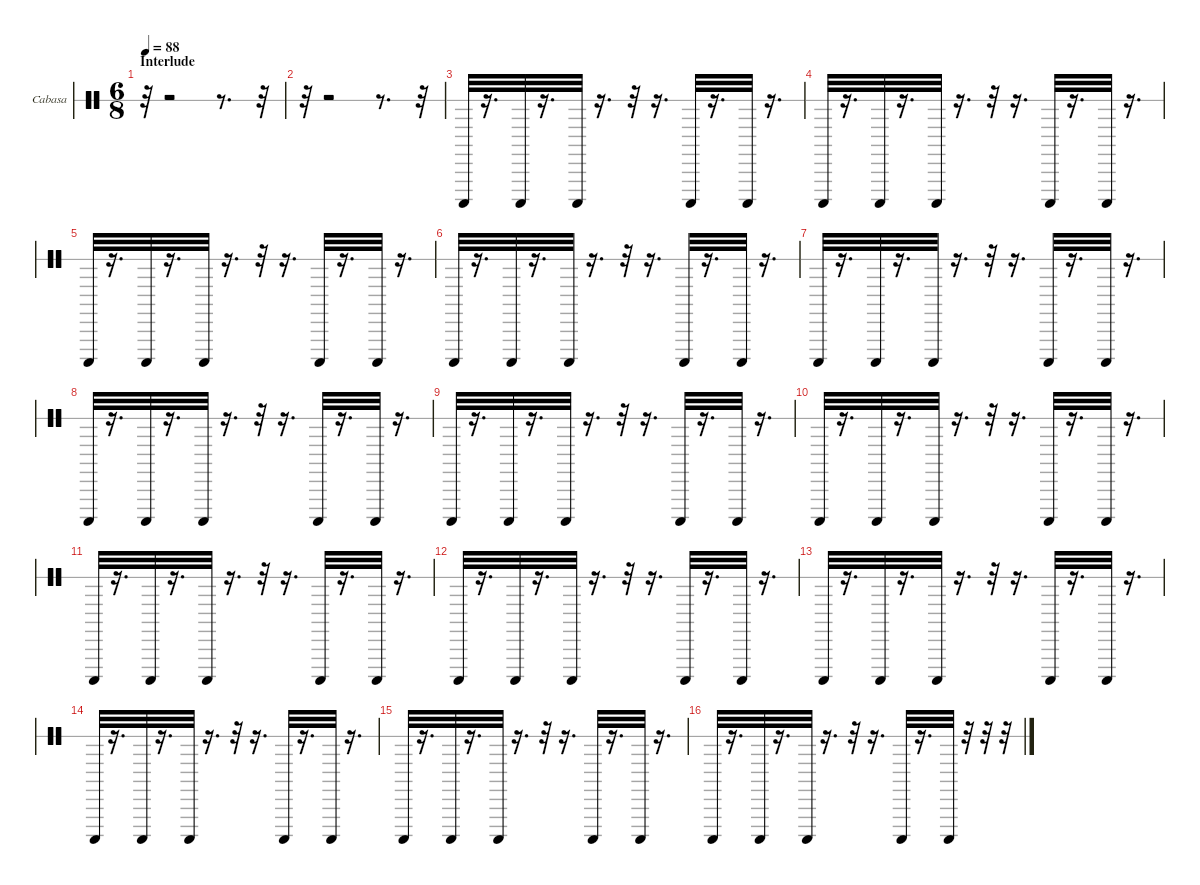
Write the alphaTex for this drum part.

\hideDynamics
\bracketExtendMode nobrackets
\firstSystemTrackNameOrientation horizontal
\otherSystemsTrackNameOrientation horizontal
\track ("Cabasa" "Cabasa") {instrument percussion}
\staff {score 1}
\articulation defaults
\ts (6 8)
\section ("" "Interlude")
\tempo 88
\clef neutral
\ks c
r.32{dy mp} r.2 r.8{d} r.32 |
r.32 r.2 r.8{d} r.32 |
"Cabasa (hit)".32{dy fff} r.16{d} "Cabasa (hit)".32{dy mf} r.16{d} "Cabasa (hit)".32{dy mp} r.16{d} r.32 r.16{d} "Cabasa (hit)".32{dy mf} r.16{d} "Cabasa (hit)".32{dy mp} r.16{d} |
"Cabasa (hit)".32{dy fff} r.16{d} "Cabasa (hit)".32{dy mf} r.16{d} "Cabasa (hit)".32{dy mp} r.16{d} r.32 r.16{d} "Cabasa (hit)".32{dy mf} r.16{d} "Cabasa (hit)".32{dy mp} r.16{d} |
"Cabasa (hit)".32{dy fff} r.16{d} "Cabasa (hit)".32{dy mf} r.16{d} "Cabasa (hit)".32{dy mp} r.16{d} r.32 r.16{d} "Cabasa (hit)".32{dy mf} r.16{d} "Cabasa (hit)".32{dy mp} r.16{d} |
"Cabasa (hit)".32{dy fff} r.16{d} "Cabasa (hit)".32{dy mf} r.16{d} "Cabasa (hit)".32{dy mp} r.16{d} r.32 r.16{d} "Cabasa (hit)".32{dy mf} r.16{d} "Cabasa (hit)".32{dy f} r.16{d} |
"Cabasa (hit)".32{dy fff} r.16{d} "Cabasa (hit)".32{dy mf} r.16{d} "Cabasa (hit)".32{dy mp} r.16{d} r.32 r.16{d} "Cabasa (hit)".32{dy mf} r.16{d} "Cabasa (hit)".32{dy mp} r.16{d} |
"Cabasa (hit)".32{dy fff} r.16{d} "Cabasa (hit)".32{dy mf} r.16{d} "Cabasa (hit)".32{dy mp} r.16{d} r.32 r.16{d} "Cabasa (hit)".32{dy mf} r.16{d} "Cabasa (hit)".32{dy f} r.16{d} |
"Cabasa (hit)".32{dy fff} r.16{d} "Cabasa (hit)".32{dy mf} r.16{d} "Cabasa (hit)".32{dy mp} r.16{d} r.32 r.16{d} "Cabasa (hit)".32{dy mf} r.16{d} "Cabasa (hit)".32{dy mp} r.16{d} |
"Cabasa (hit)".32{dy fff} r.16{d} "Cabasa (hit)".32{dy mf} r.16{d} "Cabasa (hit)".32{dy mp} r.16{d} r.32 r.16{d} "Cabasa (hit)".32{dy mf} r.16{d} "Cabasa (hit)".32{dy mp} r.16{d} |
"Cabasa (hit)".32{dy fff} r.16{d} "Cabasa (hit)".32{dy mf} r.16{d} "Cabasa (hit)".32{dy mp} r.16{d} r.32 r.16{d} "Cabasa (hit)".32{dy mf} r.16{d} "Cabasa (hit)".32{dy mp} r.16{d} |
"Cabasa (hit)".32{dy fff} r.16{d} "Cabasa (hit)".32{dy mf} r.16{d} "Cabasa (hit)".32{dy mp} r.16{d} r.32 r.16{d} "Cabasa (hit)".32{dy mf} r.16{d} "Cabasa (hit)".32{dy mp} r.16{d} |
"Cabasa (hit)".32{dy fff} r.16{d} "Cabasa (hit)".32{dy mf} r.16{d} "Cabasa (hit)".32{dy mp} r.16{d} r.32 r.16{d} "Cabasa (hit)".32{dy mf} r.16{d} "Cabasa (hit)".32{dy mp} r.16{d} |
"Cabasa (hit)".32{dy fff} r.16{d} "Cabasa (hit)".32{dy mf} r.16{d} "Cabasa (hit)".32{dy mp} r.16{d} r.32 r.16{d} "Cabasa (hit)".32{dy mf} r.16{d} "Cabasa (hit)".32{dy mp} r.16{d} |
"Cabasa (hit)".32{dy fff} r.16{d} "Cabasa (hit)".32{dy mf} r.16{d} "Cabasa (hit)".32{dy mp} r.16{d} r.32 r.16{d} "Cabasa (hit)".32{dy mf} r.16{d} "Cabasa (hit)".32{dy mp} r.16{d} |
"Cabasa (hit)".32{dy fff} r.16{d} "Cabasa (hit)".32{dy mf} r.16{d} "Cabasa (hit)".32{dy mp} r.16{d} r.32 r.16{d} "Cabasa (hit)".32{dy mf} r.16{d} "Cabasa (hit)".32{dy f} r.32 r.32 r.32
